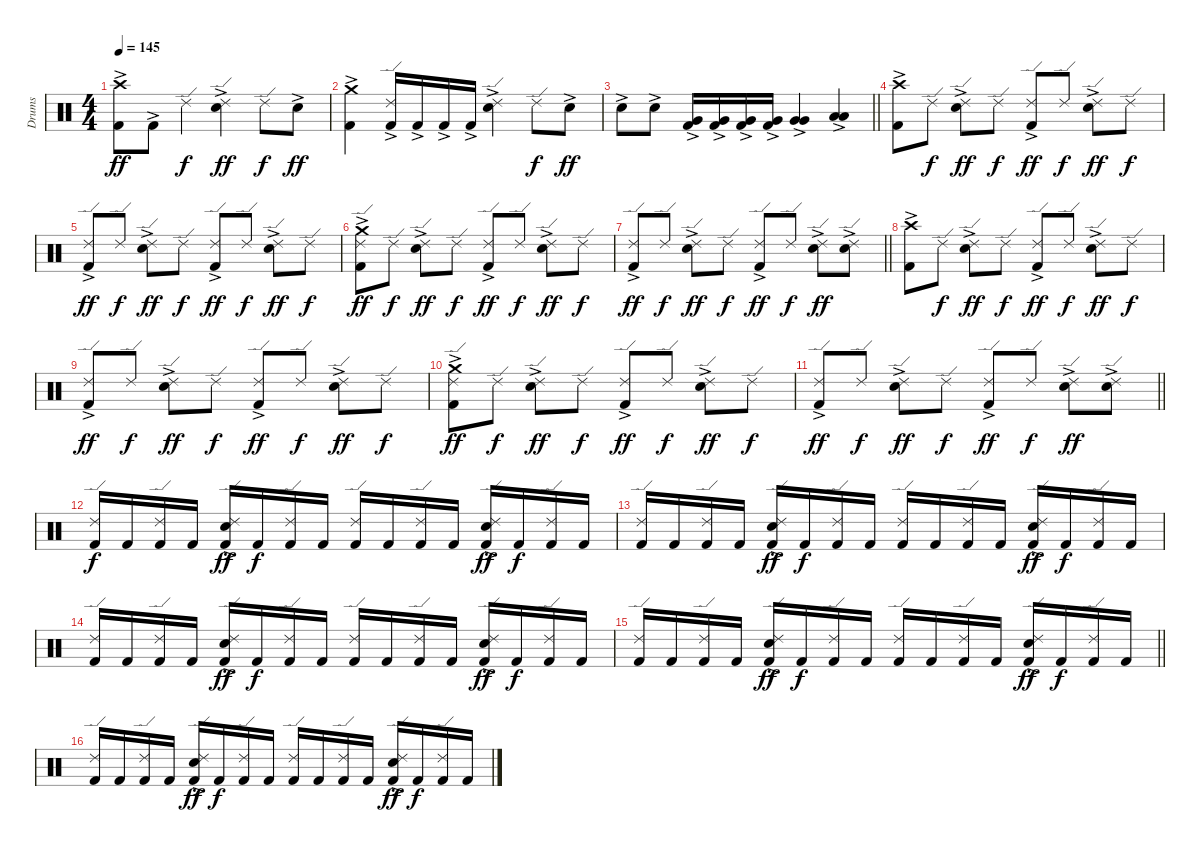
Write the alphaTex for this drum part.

\track ("Drums" "Drums") {instrument percussion}
\staff {score}
\articulation defaults
\ts (4 4)
\tempo 145
\clef neutral
\ks c
("Kick (hit) 2"{ac} "Crash high (hit)").8{dy ff} "Kick (hit) 2"{ac}.8 "Ride (edge) 2".4{dy f} ("Snare (hit) 2"{ac} "Ride (edge) 2").4{dy ff} "Ride (edge) 2".8{dy f} "Snare (hit) 2"{ac}.8{dy ff} |
("Kick (hit) 2"{ac} "Crash medium (hit)").4 ("Kick (hit) 2"{ac} "Ride (edge) 2").16 "Kick (hit) 2"{ac}.16 "Kick (hit) 2"{ac}.16 "Kick (hit) 2"{ac}.16 ("Snare (hit) 2"{ac} "Ride (edge) 2").4 "Ride (edge) 2".8{dy f} "Snare (hit) 2"{ac}.8{dy ff} |
\barLineRight lightlight "Snare (hit) 2"{ac}.8 "Snare (hit) 2"{ac}.8
("Kick (hit) 2"{ac} "Very Low Tom (hit)").16 ("Kick (hit) 2"{ac} "Very Low Tom (hit)").16 ("Kick (hit) 2"{ac} "Very Low Tom (hit)").16 ("Kick (hit) 2"{ac} "Very Low Tom (hit)").16 ("Very Low Tom (hit)" "Very Low Tom (hit)"{ac}).4 ("Low Floor Tom (hit)" "Low Floor Tom (hit)"{ac}).4 |
\section ("" "")
("Kick (hit) 2"{ac} "Crash high (hit)").8 "Ride (edge) 2".8{dy f} ("Snare (hit) 2"{ac} "Ride (edge) 2").8{dy ff} "Ride (edge) 2".8{dy f} ("Kick (hit) 2"{ac} "Ride (edge) 2").8{dy ff} "Ride (edge) 2".8{dy f} ("Snare (hit) 2"{ac} "Ride (edge) 2").8{dy ff} "Ride (edge) 2".8{dy f} |
("Kick (hit) 2"{ac} "Ride (edge) 2").8{dy ff} "Ride (edge) 2".8{dy f} ("Snare (hit) 2"{ac} "Ride (edge) 2").8{dy ff} "Ride (edge) 2".8{dy f} ("Kick (hit) 2"{ac} "Ride (edge) 2").8{dy ff} "Ride (edge) 2".8{dy f} ("Snare (hit) 2"{ac} "Ride (edge) 2").8{dy ff} "Ride (edge) 2".8{dy f} |
("Kick (hit) 2"{ac} "Ride (edge) 2" "Crash medium (hit)").8{dy ff} "Ride (edge) 2".8{dy f} ("Snare (hit) 2"{ac} "Ride (edge) 2").8{dy ff} "Ride (edge) 2".8{dy f} ("Kick (hit) 2"{ac} "Ride (edge) 2").8{dy ff} "Ride (edge) 2".8{dy f} ("Snare (hit) 2"{ac} "Ride (edge) 2").8{dy ff} "Ride (edge) 2".8{dy f} |
\barLineRight lightlight
("Kick (hit) 2"{ac} "Ride (edge) 2").8{dy ff} "Ride (edge) 2".8{dy f} ("Snare (hit) 2"{ac} "Ride (edge) 2").8{dy ff} "Ride (edge) 2".8{dy f} ("Kick (hit) 2"{ac} "Ride (edge) 2").8{dy ff} "Ride (edge) 2".8{dy f} ("Snare (hit) 2"{ac} "Ride (edge) 2").8{dy ff} ("Snare (hit) 2"{ac} "Ride (edge) 2").8 |
\section ("" "")
("Kick (hit) 2"{ac} "Crash high (hit)").8 "Ride (edge) 2".8{dy f} ("Snare (hit) 2"{ac} "Ride (edge) 2").8{dy ff} "Ride (edge) 2".8{dy f} ("Kick (hit) 2"{ac} "Ride (edge) 2").8{dy ff} "Ride (edge) 2".8{dy f} ("Snare (hit) 2"{ac} "Ride (edge) 2").8{dy ff} "Ride (edge) 2".8{dy f} |
("Kick (hit) 2"{ac} "Ride (edge) 2").8{dy ff} "Ride (edge) 2".8{dy f} ("Snare (hit) 2"{ac} "Ride (edge) 2").8{dy ff} "Ride (edge) 2".8{dy f} ("Kick (hit) 2"{ac} "Ride (edge) 2").8{dy ff} "Ride (edge) 2".8{dy f} ("Snare (hit) 2"{ac} "Ride (edge) 2").8{dy ff} "Ride (edge) 2".8{dy f} |
("Kick (hit) 2"{ac} "Ride (edge) 2" "Crash medium (hit)").8{dy ff} "Ride (edge) 2".8{dy f} ("Snare (hit) 2"{ac} "Ride (edge) 2").8{dy ff} "Ride (edge) 2".8{dy f} ("Kick (hit) 2"{ac} "Ride (edge) 2").8{dy ff} "Ride (edge) 2".8{dy f} ("Snare (hit) 2"{ac} "Ride (edge) 2").8{dy ff} "Ride (edge) 2".8{dy f} |
\barLineRight lightlight
("Kick (hit) 2"{ac} "Ride (edge) 2").8{dy ff} "Ride (edge) 2".8{dy f} ("Snare (hit) 2"{ac} "Ride (edge) 2").8{dy ff} "Ride (edge) 2".8{dy f} ("Kick (hit) 2"{ac} "Ride (edge) 2").8{dy ff} "Ride (edge) 2".8{dy f} ("Snare (hit) 2"{ac} "Ride (edge) 2").8{dy ff} ("Snare (hit) 2"{ac} "Ride (edge) 2").8 |
\section ("" "")
("Kick (hit) 2" "Ride (edge) 2").16{dy f} "Kick (hit) 2".16 ("Kick (hit) 2" "Ride (edge) 2").16 "Kick (hit) 2".16 ("Kick (hit) 2" "Snare (hit) 2"{ac} "Ride (edge) 2").16{dy ff} "Kick (hit) 2".16{dy f} ("Kick (hit) 2" "Ride (edge) 2").16 "Kick (hit) 2".16 ("Kick (hit) 2" "Ride (edge) 2").16 "Kick (hit) 2".16 ("Kick (hit) 2" "Ride (edge) 2").16 "Kick (hit) 2".16 ("Kick (hit) 2" "Snare (hit) 2"{ac} "Ride (edge) 2").16{dy ff} "Kick (hit) 2".16{dy f} ("Kick (hit) 2" "Ride (edge) 2").16 "Kick (hit) 2".16 |
("Kick (hit) 2" "Ride (edge) 2").16 "Kick (hit) 2".16 ("Kick (hit) 2" "Ride (edge) 2").16 "Kick (hit) 2".16 ("Kick (hit) 2" "Snare (hit) 2"{ac} "Ride (edge) 2").16{dy ff} "Kick (hit) 2".16{dy f} ("Kick (hit) 2" "Ride (edge) 2").16 "Kick (hit) 2".16 ("Kick (hit) 2" "Ride (edge) 2").16 "Kick (hit) 2".16 ("Kick (hit) 2" "Ride (edge) 2").16 "Kick (hit) 2".16 ("Kick (hit) 2" "Snare (hit) 2"{ac} "Ride (edge) 2").16{dy ff} "Kick (hit) 2".16{dy f} ("Kick (hit) 2" "Ride (edge) 2").16 "Kick (hit) 2".16 |
("Kick (hit) 2" "Ride (edge) 2").16 "Kick (hit) 2".16 ("Kick (hit) 2" "Ride (edge) 2").16 "Kick (hit) 2".16 ("Kick (hit) 2" "Snare (hit) 2"{ac} "Ride (edge) 2").16{dy ff} "Kick (hit) 2".16{dy f} ("Kick (hit) 2" "Ride (edge) 2").16 "Kick (hit) 2".16 ("Kick (hit) 2" "Ride (edge) 2").16 "Kick (hit) 2".16 ("Kick (hit) 2" "Ride (edge) 2").16 "Kick (hit) 2".16 ("Kick (hit) 2" "Snare (hit) 2"{ac} "Ride (edge) 2").16{dy ff} "Kick (hit) 2".16{dy f} ("Kick (hit) 2" "Ride (edge) 2").16 "Kick (hit) 2".16 |
\barLineRight lightlight
("Kick (hit) 2" "Ride (edge) 2").16 "Kick (hit) 2".16 ("Kick (hit) 2" "Ride (edge) 2").16 "Kick (hit) 2".16 ("Kick (hit) 2" "Snare (hit) 2"{ac} "Ride (edge) 2").16{dy ff} "Kick (hit) 2".16{dy f} ("Kick (hit) 2" "Ride (edge) 2").16 "Kick (hit) 2".16 ("Kick (hit) 2" "Ride (edge) 2").16 "Kick (hit) 2".16 ("Kick (hit) 2" "Ride (edge) 2").16 "Kick (hit) 2".16 ("Kick (hit) 2" "Snare (hit) 2"{ac} "Ride (edge) 2").16{dy ff} "Kick (hit) 2".16{dy f} ("Kick (hit) 2" "Ride (edge) 2").16 "Kick (hit) 2".16 |
\section ("" "")
("Kick (hit) 2" "Ride (edge) 2").16 "Kick (hit) 2".16 ("Kick (hit) 2" "Ride (edge) 2").16 "Kick (hit) 2".16 ("Kick (hit) 2" "Snare (hit) 2"{ac} "Ride (edge) 2").16{dy ff} "Kick (hit) 2".16{dy f} ("Kick (hit) 2" "Ride (edge) 2").16 "Kick (hit) 2".16 ("Kick (hit) 2" "Ride (edge) 2").16 "Kick (hit) 2".16 ("Kick (hit) 2" "Ride (edge) 2").16 "Kick (hit) 2".16 ("Kick (hit) 2" "Snare (hit) 2"{ac} "Ride (edge) 2").16{dy ff} "Kick (hit) 2".16{dy f} ("Kick (hit) 2" "Ride (edge) 2").16 "Kick (hit) 2".16
